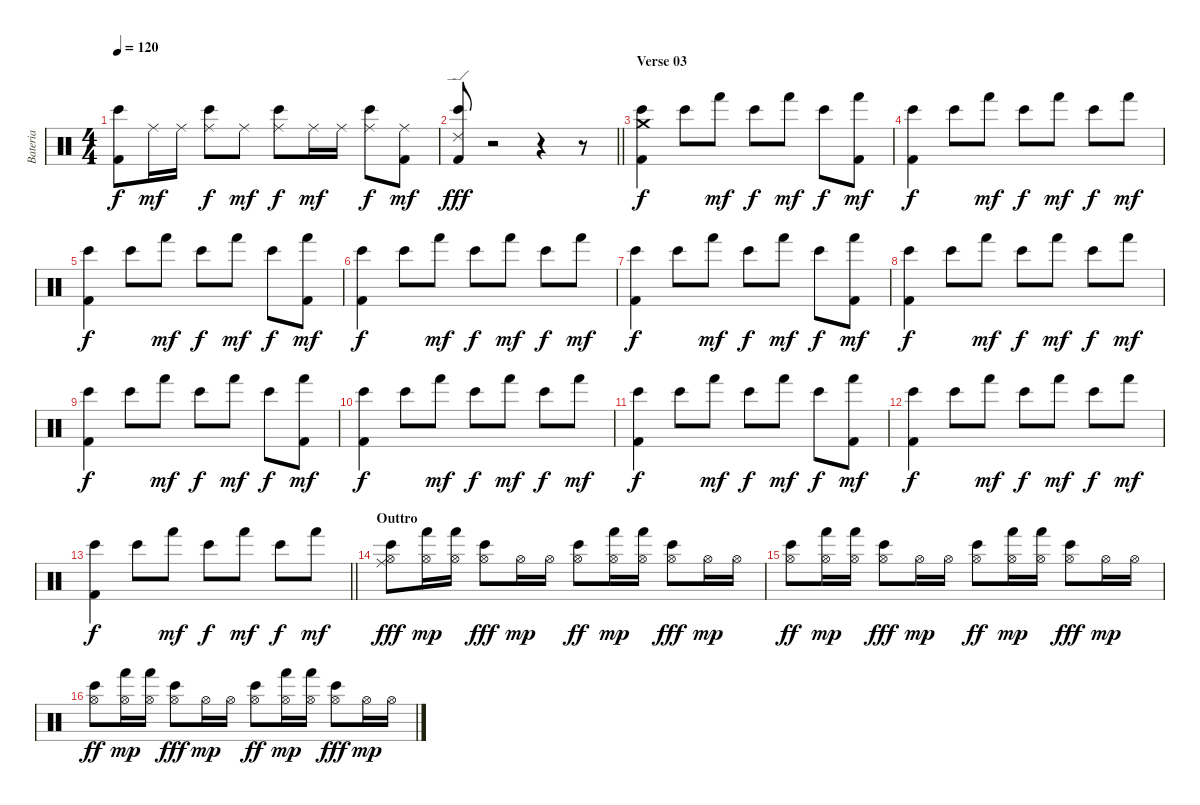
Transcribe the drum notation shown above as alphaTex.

\track ("Bateria" "Bateria") {instrument percussion}
\staff {score}
\articulation defaults
\ts (4 4)
\tempo 120
\clef neutral
\ks c
("Kick (hit) 2" "Bongo High (hit)").8{dy f} "Ride (middle)".16{dy mf} "Ride (middle)".16 ("Bongo High (hit)" "Ride (middle)").8{dy f} "Ride (middle)".8{dy mf} ("Bongo High (hit)" "Ride (middle)").8{dy f} "Ride (middle)".16{dy mf} "Ride (middle)".16 ("Bongo High (hit)" "Ride (middle)").8{dy f} ("Kick (hit) 2" "Ride (middle)").8{dy mf} |
\barLineRight lightlight
("Kick (hit) 2" "Bongo High (hit)" "Ride (edge) 2").8{dy fff} r.2 r.4 r.8 |
\section ("" "Verse 03")
("Kick (hit) 2" "Bongo High (hit)" "Crash medium (hit)").4{dy f} "Bongo High (hit)".8 "Hand (hit)".8{dy mf} "Bongo High (hit)".8{dy f} "Hand (hit)".8{dy mf} "Bongo High (hit)".8{dy f} ("Kick (hit) 2" "Hand (hit)").8{dy mf} |
("Kick (hit) 2" "Bongo High (hit)").4{dy f} "Bongo High (hit)".8 "Hand (hit)".8{dy mf} "Bongo High (hit)".8{dy f} "Hand (hit)".8{dy mf} "Bongo High (hit)".8{dy f} "Hand (hit)".8{dy mf} |
("Kick (hit) 2" "Bongo High (hit)").4{dy f} "Bongo High (hit)".8 "Hand (hit)".8{dy mf} "Bongo High (hit)".8{dy f} "Hand (hit)".8{dy mf} "Bongo High (hit)".8{dy f} ("Kick (hit) 2" "Hand (hit)").8{dy mf} |
("Kick (hit) 2" "Bongo High (hit)").4{dy f} "Bongo High (hit)".8 "Hand (hit)".8{dy mf} "Bongo High (hit)".8{dy f} "Hand (hit)".8{dy mf} "Bongo High (hit)".8{dy f} "Hand (hit)".8{dy mf} |
("Kick (hit) 2" "Bongo High (hit)").4{dy f} "Bongo High (hit)".8 "Hand (hit)".8{dy mf} "Bongo High (hit)".8{dy f} "Hand (hit)".8{dy mf} "Bongo High (hit)".8{dy f} ("Kick (hit) 2" "Hand (hit)").8{dy mf} |
("Kick (hit) 2" "Bongo High (hit)").4{dy f} "Bongo High (hit)".8 "Hand (hit)".8{dy mf} "Bongo High (hit)".8{dy f} "Hand (hit)".8{dy mf} "Bongo High (hit)".8{dy f} "Hand (hit)".8{dy mf} |
("Kick (hit) 2" "Bongo High (hit)").4{dy f} "Bongo High (hit)".8 "Hand (hit)".8{dy mf} "Bongo High (hit)".8{dy f} "Hand (hit)".8{dy mf} "Bongo High (hit)".8{dy f} ("Kick (hit) 2" "Hand (hit)").8{dy mf} |
("Kick (hit) 2" "Bongo High (hit)").4{dy f} "Bongo High (hit)".8 "Hand (hit)".8{dy mf} "Bongo High (hit)".8{dy f} "Hand (hit)".8{dy mf} "Bongo High (hit)".8{dy f} "Hand (hit)".8{dy mf} |
("Kick (hit) 2" "Bongo High (hit)").4{dy f} "Bongo High (hit)".8 "Hand (hit)".8{dy mf} "Bongo High (hit)".8{dy f} "Hand (hit)".8{dy mf} "Bongo High (hit)".8{dy f} ("Kick (hit) 2" "Hand (hit)").8{dy mf} |
("Kick (hit) 2" "Bongo High (hit)").4{dy f} "Bongo High (hit)".8 "Hand (hit)".8{dy mf} "Bongo High (hit)".8{dy f} "Hand (hit)".8{dy mf} "Bongo High (hit)".8{dy f} "Hand (hit)".8{dy mf} |
\barLineRight lightlight
("Kick (hit) 2" "Bongo High (hit)").4{dy f} "Bongo High (hit)".8 "Hand (hit)".8{dy mf} "Bongo High (hit)".8{dy f} "Hand (hit)".8{dy mf} "Bongo High (hit)".8{dy f} "Hand (hit)".8{dy mf} |
\section ("" "Outtro")
("Hi-Hat (open)" "Bongo High (hit)" "Ride (middle)").8{dy fff} ("Hi-Hat (open)" "Hand (hit)").16{dy mp} ("Hi-Hat (open)" "Hand (hit)").16 ("Hi-Hat (open)" "Bongo High (hit)").8{dy fff} "Hi-Hat (open)".16{dy mp} "Hi-Hat (open)".16 ("Hi-Hat (open)" "Bongo High (hit)").8{dy ff} ("Hi-Hat (open)" "Hand (hit)").16{dy mp} ("Hi-Hat (open)" "Hand (hit)").16 ("Hi-Hat (open)" "Bongo High (hit)").8{dy fff} "Hi-Hat (open)".16{dy mp} "Hi-Hat (open)".16 |
("Hi-Hat (open)" "Bongo High (hit)").8{dy ff} ("Hi-Hat (open)" "Hand (hit)").16{dy mp} ("Hi-Hat (open)" "Hand (hit)").16 ("Hi-Hat (open)" "Bongo High (hit)").8{dy fff} "Hi-Hat (open)".16{dy mp} "Hi-Hat (open)".16 ("Hi-Hat (open)" "Bongo High (hit)").8{dy ff} ("Hi-Hat (open)" "Hand (hit)").16{dy mp} ("Hi-Hat (open)" "Hand (hit)").16 ("Hi-Hat (open)" "Bongo High (hit)").8{dy fff} "Hi-Hat (open)".16{dy mp} "Hi-Hat (open)".16 |
("Hi-Hat (open)" "Bongo High (hit)").8{dy ff} ("Hi-Hat (open)" "Hand (hit)").16{dy mp} ("Hi-Hat (open)" "Hand (hit)").16 ("Hi-Hat (open)" "Bongo High (hit)").8{dy fff} "Hi-Hat (open)".16{dy mp} "Hi-Hat (open)".16 ("Hi-Hat (open)" "Bongo High (hit)").8{dy ff} ("Hi-Hat (open)" "Hand (hit)").16{dy mp} ("Hi-Hat (open)" "Hand (hit)").16 ("Hi-Hat (open)" "Bongo High (hit)").8{dy fff} "Hi-Hat (open)".16{dy mp} "Hi-Hat (open)".16
